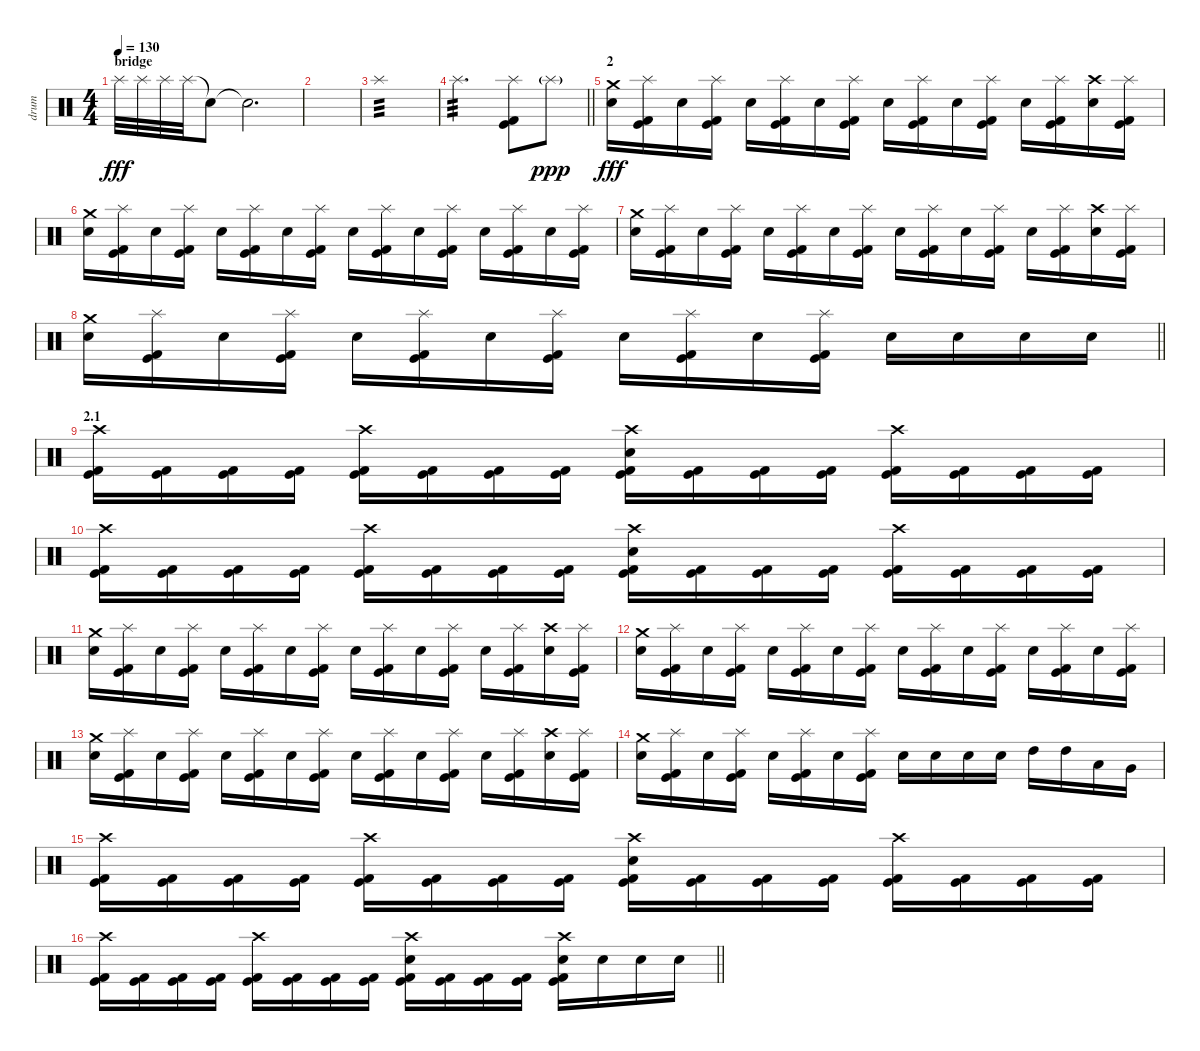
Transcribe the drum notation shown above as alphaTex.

\track ("drum" "drum") {instrument percussion}
\staff {score}
\articulation defaults
\ts (4 4)
\section ("" "bridge")
\tempo 130
\clef neutral
\ks c "Splash (hit)".32{dy fff} "Splash (hit)".32 "Splash (hit)".32 "Splash (hit)".32 "Snare (hit)"{t}.8 "Snare (hit)"{t}.2{d}
|
|
"Splash (hit)".1{tp 3 volume 10} |
\barLineRight lightlight "Splash (hit)".2{d tp 3 volume 16}
("Splash (hit)" "Kick (hit)" "Kick (hit) 2").8 "Splash (hit)"{g}.8{dy ppp} |
\section ("" "2")
("Crash medium (hit)" "Snare (hit) 2").16{dy fff} ("Splash (hit)" "Kick (hit)" "Kick (hit) 2").16 "Snare (hit) 2".16 ("Splash (hit)" "Kick (hit)" "Kick (hit) 2").16 "Snare (hit) 2".16 ("Splash (hit)" "Kick (hit)" "Kick (hit) 2").16 "Snare (hit) 2".16 ("Splash (hit)" "Kick (hit)" "Kick (hit) 2").16 "Snare (hit) 2".16 ("Splash (hit)" "Kick (hit)" "Kick (hit) 2").16 "Snare (hit) 2".16 ("Splash (hit)" "Kick (hit)" "Kick (hit) 2").16 "Snare (hit) 2".16 ("Splash (hit)" "Kick (hit)" "Kick (hit) 2").16 ("Crash high (hit)" "Snare (hit) 2").16 ("Splash (hit)" "Kick (hit)" "Kick (hit) 2").16 |
("Crash medium (hit)" "Snare (hit) 2").16 ("Splash (hit)" "Kick (hit)" "Kick (hit) 2").16 "Snare (hit) 2".16 ("Splash (hit)" "Kick (hit)" "Kick (hit) 2").16 "Snare (hit) 2".16 ("Splash (hit)" "Kick (hit)" "Kick (hit) 2").16 "Snare (hit) 2".16 ("Splash (hit)" "Kick (hit)" "Kick (hit) 2").16 "Snare (hit) 2".16 ("Splash (hit)" "Kick (hit)" "Kick (hit) 2").16 "Snare (hit) 2".16 ("Splash (hit)" "Kick (hit)" "Kick (hit) 2").16 "Snare (hit) 2".16 ("Splash (hit)" "Kick (hit)" "Kick (hit) 2").16 "Snare (hit) 2".16 ("Splash (hit)" "Kick (hit)" "Kick (hit) 2").16 |
("Crash medium (hit)" "Snare (hit) 2").16 ("Splash (hit)" "Kick (hit)" "Kick (hit) 2").16 "Snare (hit) 2".16 ("Splash (hit)" "Kick (hit)" "Kick (hit) 2").16 "Snare (hit) 2".16 ("Splash (hit)" "Kick (hit)" "Kick (hit) 2").16 "Snare (hit) 2".16 ("Splash (hit)" "Kick (hit)" "Kick (hit) 2").16 "Snare (hit) 2".16 ("Splash (hit)" "Kick (hit)" "Kick (hit) 2").16 "Snare (hit) 2".16 ("Splash (hit)" "Kick (hit)" "Kick (hit) 2").16 "Snare (hit) 2".16 ("Splash (hit)" "Kick (hit)" "Kick (hit) 2").16 ("Crash high (hit)" "Snare (hit) 2").16 ("Splash (hit)" "Kick (hit)" "Kick (hit) 2").16 |
\barLineRight lightlight
("Crash medium (hit)" "Snare (hit) 2").16 ("Splash (hit)" "Kick (hit)" "Kick (hit) 2").16 "Snare (hit) 2".16 ("Splash (hit)" "Kick (hit)" "Kick (hit) 2").16 "Snare (hit) 2".16 ("Splash (hit)" "Kick (hit)" "Kick (hit) 2").16 "Snare (hit) 2".16 ("Splash (hit)" "Kick (hit)" "Kick (hit) 2").16 "Snare (hit) 2".16 ("Splash (hit)" "Kick (hit)" "Kick (hit) 2").16 "Snare (hit) 2".16 ("Splash (hit)" "Kick (hit)" "Kick (hit) 2").16 "Snare (hit) 2".16 "Snare (hit) 2".16 "Snare (hit) 2".16 "Snare (hit) 2".16 |
\section ("" "2.1")
("Crash high (hit)" "Kick (hit)" "Kick (hit) 2").16 ("Kick (hit)" "Kick (hit) 2").16 ("Kick (hit)" "Kick (hit) 2").16 ("Kick (hit)" "Kick (hit) 2").16 ("Crash high (hit)" "Kick (hit)" "Kick (hit) 2").16 ("Kick (hit)" "Kick (hit) 2").16 ("Kick (hit)" "Kick (hit) 2").16 ("Kick (hit)" "Kick (hit) 2").16 ("Crash high (hit)" "Snare (hit) 2" "Kick (hit)" "Kick (hit) 2").16 ("Kick (hit)" "Kick (hit) 2").16 ("Kick (hit)" "Kick (hit) 2").16 ("Kick (hit)" "Kick (hit) 2").16 ("Crash high (hit)" "Kick (hit)" "Kick (hit) 2").16 ("Kick (hit)" "Kick (hit) 2").16 ("Kick (hit)" "Kick (hit) 2").16 ("Kick (hit)" "Kick (hit) 2").16 |
("Crash high (hit)" "Kick (hit)" "Kick (hit) 2").16 ("Kick (hit)" "Kick (hit) 2").16 ("Kick (hit)" "Kick (hit) 2").16 ("Kick (hit)" "Kick (hit) 2").16 ("Crash high (hit)" "Kick (hit)" "Kick (hit) 2").16 ("Kick (hit)" "Kick (hit) 2").16 ("Kick (hit)" "Kick (hit) 2").16 ("Kick (hit)" "Kick (hit) 2").16 ("Crash high (hit)" "Snare (hit) 2" "Kick (hit)" "Kick (hit) 2").16 ("Kick (hit)" "Kick (hit) 2").16 ("Kick (hit)" "Kick (hit) 2").16 ("Kick (hit)" "Kick (hit) 2").16 ("Crash high (hit)" "Kick (hit)" "Kick (hit) 2").16 ("Kick (hit)" "Kick (hit) 2").16 ("Kick (hit)" "Kick (hit) 2").16 ("Kick (hit)" "Kick (hit) 2").16 |
("Crash medium (hit)" "Snare (hit) 2").16 ("Splash (hit)" "Kick (hit)" "Kick (hit) 2").16 "Snare (hit) 2".16 ("Splash (hit)" "Kick (hit)" "Kick (hit) 2").16 "Snare (hit) 2".16 ("Splash (hit)" "Kick (hit)" "Kick (hit) 2").16 "Snare (hit) 2".16 ("Splash (hit)" "Kick (hit)" "Kick (hit) 2").16 "Snare (hit) 2".16 ("Splash (hit)" "Kick (hit)" "Kick (hit) 2").16 "Snare (hit) 2".16 ("Splash (hit)" "Kick (hit)" "Kick (hit) 2").16 "Snare (hit) 2".16 ("Splash (hit)" "Kick (hit)" "Kick (hit) 2").16 ("Crash high (hit)" "Snare (hit) 2").16 ("Splash (hit)" "Kick (hit)" "Kick (hit) 2").16 |
("Crash medium (hit)" "Snare (hit) 2").16 ("Splash (hit)" "Kick (hit)" "Kick (hit) 2").16 "Snare (hit) 2".16 ("Splash (hit)" "Kick (hit)" "Kick (hit) 2").16 "Snare (hit) 2".16 ("Splash (hit)" "Kick (hit)" "Kick (hit) 2").16 "Snare (hit) 2".16 ("Splash (hit)" "Kick (hit)" "Kick (hit) 2").16 "Snare (hit) 2".16 ("Splash (hit)" "Kick (hit)" "Kick (hit) 2").16 "Snare (hit) 2".16 ("Splash (hit)" "Kick (hit)" "Kick (hit) 2").16 "Snare (hit) 2".16 ("Splash (hit)" "Kick (hit)" "Kick (hit) 2").16 "Snare (hit) 2".16 ("Splash (hit)" "Kick (hit)" "Kick (hit) 2").16 |
("Crash medium (hit)" "Snare (hit) 2").16 ("Splash (hit)" "Kick (hit)" "Kick (hit) 2").16 "Snare (hit) 2".16 ("Splash (hit)" "Kick (hit)" "Kick (hit) 2").16 "Snare (hit) 2".16 ("Splash (hit)" "Kick (hit)" "Kick (hit) 2").16 "Snare (hit) 2".16 ("Splash (hit)" "Kick (hit)" "Kick (hit) 2").16 "Snare (hit) 2".16 ("Splash (hit)" "Kick (hit)" "Kick (hit) 2").16 "Snare (hit) 2".16 ("Splash (hit)" "Kick (hit)" "Kick (hit) 2").16 "Snare (hit) 2".16 ("Splash (hit)" "Kick (hit)" "Kick (hit) 2").16 ("Crash high (hit)" "Snare (hit) 2").16 ("Splash (hit)" "Kick (hit)" "Kick (hit) 2").16 |
("Crash medium (hit)" "Snare (hit) 2").16 ("Splash (hit)" "Kick (hit)" "Kick (hit) 2").16 "Snare (hit) 2".16 ("Splash (hit)" "Kick (hit)" "Kick (hit) 2").16 "Snare (hit) 2".16 ("Splash (hit)" "Kick (hit)" "Kick (hit) 2").16 "Snare (hit) 2".16 ("Splash (hit)" "Kick (hit)" "Kick (hit) 2").16 "Snare (hit) 2".16 "Snare (hit) 2".16 "Snare (hit) 2".16 "Snare (hit) 2".16 "High Tom (hit)".16 "High Tom (hit)".16 "Low Tom (hit)".16 "Very Low Tom (hit)".16 |
("Crash high (hit)" "Kick (hit)" "Kick (hit) 2").16 ("Kick (hit)" "Kick (hit) 2").16 ("Kick (hit)" "Kick (hit) 2").16 ("Kick (hit)" "Kick (hit) 2").16 ("Crash high (hit)" "Kick (hit)" "Kick (hit) 2").16 ("Kick (hit)" "Kick (hit) 2").16 ("Kick (hit)" "Kick (hit) 2").16 ("Kick (hit)" "Kick (hit) 2").16 ("Crash high (hit)" "Snare (hit) 2" "Kick (hit)" "Kick (hit) 2").16 ("Kick (hit)" "Kick (hit) 2").16 ("Kick (hit)" "Kick (hit) 2").16 ("Kick (hit)" "Kick (hit) 2").16 ("Crash high (hit)" "Kick (hit)" "Kick (hit) 2").16 ("Kick (hit)" "Kick (hit) 2").16 ("Kick (hit)" "Kick (hit) 2").16 ("Kick (hit)" "Kick (hit) 2").16 |
\barLineRight lightlight
("Crash high (hit)" "Kick (hit)" "Kick (hit) 2").16 ("Kick (hit)" "Kick (hit) 2").16 ("Kick (hit)" "Kick (hit) 2").16 ("Kick (hit)" "Kick (hit) 2").16 ("Crash high (hit)" "Kick (hit)" "Kick (hit) 2").16 ("Kick (hit)" "Kick (hit) 2").16 ("Kick (hit)" "Kick (hit) 2").16 ("Kick (hit)" "Kick (hit) 2").16 ("Crash high (hit)" "Snare (hit) 2" "Kick (hit)" "Kick (hit) 2").16 ("Kick (hit)" "Kick (hit) 2").16 ("Kick (hit)" "Kick (hit) 2").16 ("Kick (hit)" "Kick (hit) 2").16 ("Crash high (hit)" "Snare (hit) 2" "Kick (hit)" "Kick (hit) 2").16 "Snare (hit) 2".16 "Snare (hit) 2".16 "Snare (hit) 2".16
